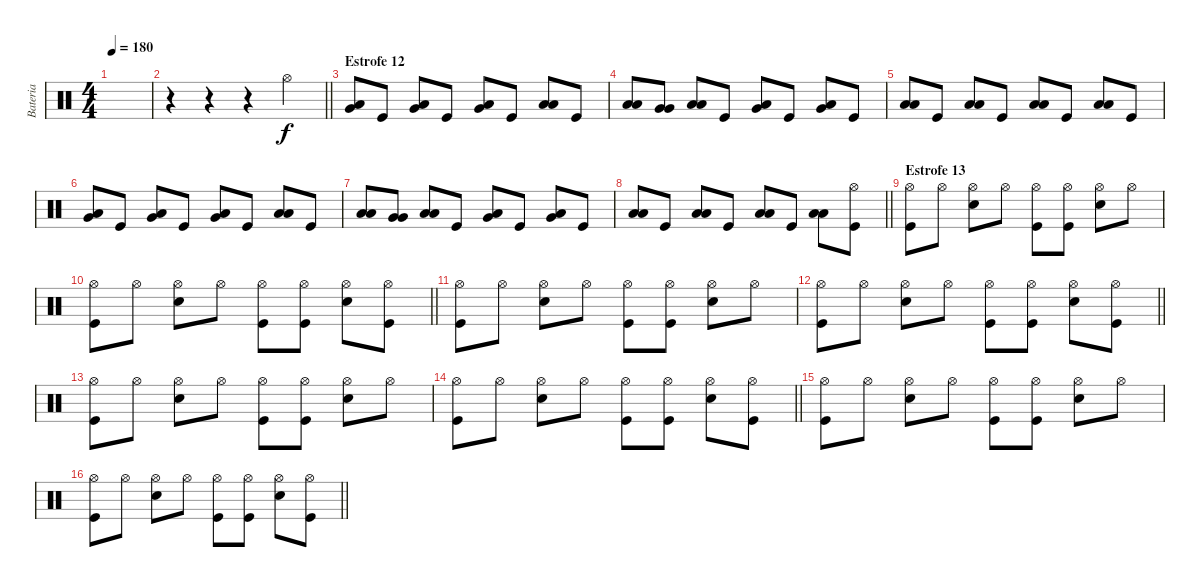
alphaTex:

\track ("Bateria" "Bateria") {instrument percussion}
\staff {score}
\articulation defaults
\ts (4 4)
\tempo 180
\clef neutral
\ks c
|
\barLineRight lightlight
r.4 r.4 r.4 "Hi-Hat (open)".4 |
\section ("" "Estrofe 12")
("Low Tom (hit)" "Very Low Tom (hit)").8 "Kick (hit)".8 ("Very Low Tom (hit)" "Low Floor Tom (hit)").8 "Kick (hit)".8 ("Low Tom (hit)" "Very Low Tom (hit)").8 "Kick (hit)".8 ("Low Floor Tom (hit)" "Low Floor Tom (hit)").8 "Kick (hit)".8 |
("Low Tom (hit)" "Low Tom (hit)").8 ("Very Low Tom (hit)" "Very Low Tom (hit)").8 ("Low Floor Tom (hit)" "Low Floor Tom (hit)").8 "Kick (hit)".8 ("Low Floor Tom (hit)" "Very Low Tom (hit)").8 "Kick (hit)".8 ("Low Tom (hit)" "Very Low Tom (hit)").8 "Kick (hit)".8 |
("Low Floor Tom (hit)" "Low Floor Tom (hit)").8 "Kick (hit)".8 ("Low Floor Tom (hit)" "Low Floor Tom (hit)").8 "Kick (hit)".8 ("Low Floor Tom (hit)" "Low Floor Tom (hit)").8 "Kick (hit)".8 ("Low Floor Tom (hit)" "Low Floor Tom (hit)").8 "Kick (hit)".8 |
("Low Tom (hit)" "Very Low Tom (hit)").8 "Kick (hit)".8 ("Very Low Tom (hit)" "Low Floor Tom (hit)").8 "Kick (hit)".8 ("Low Tom (hit)" "Very Low Tom (hit)").8 "Kick (hit)".8 ("Low Floor Tom (hit)" "Low Floor Tom (hit)").8 "Kick (hit)".8 |
("Low Tom (hit)" "Low Tom (hit)").8 ("Very Low Tom (hit)" "Very Low Tom (hit)").8 ("Low Floor Tom (hit)" "Low Floor Tom (hit)").8 "Kick (hit)".8 ("Low Floor Tom (hit)" "Very Low Tom (hit)").8 "Kick (hit)".8 ("Low Tom (hit)" "Very Low Tom (hit)").8 "Kick (hit)".8 |
\barLineRight lightlight
("Low Floor Tom (hit)" "Low Floor Tom (hit)").8 "Kick (hit)".8 ("Low Floor Tom (hit)" "Low Floor Tom (hit)").8 "Kick (hit)".8 ("Low Floor Tom (hit)" "Low Floor Tom (hit)").8 "Kick (hit)".8 ("Low Floor Tom (hit)" "Low Floor Tom (hit)").8 ("Hi-Hat (open)" "Kick (hit)").8 |
\section ("" "Estrofe 13")
("Hi-Hat (open)" "Kick (hit)").8 "Hi-Hat (open)".8 ("Hi-Hat (open)" "Snare (hit) 2").8 "Hi-Hat (open)".8 ("Hi-Hat (open)" "Kick (hit)").8 ("Hi-Hat (open)" "Kick (hit)").8 ("Hi-Hat (open)" "Snare (hit) 2").8 "Hi-Hat (open)".8 |
\barLineRight lightlight
("Hi-Hat (open)" "Kick (hit)").8 "Hi-Hat (open)".8 ("Hi-Hat (open)" "Snare (hit) 2").8 "Hi-Hat (open)".8 ("Hi-Hat (open)" "Kick (hit)").8 ("Hi-Hat (open)" "Kick (hit)").8 ("Hi-Hat (open)" "Snare (hit) 2").8 ("Hi-Hat (open)" "Kick (hit)").8 |
("Hi-Hat (open)" "Kick (hit)").8 "Hi-Hat (open)".8 ("Hi-Hat (open)" "Snare (hit) 2").8 "Hi-Hat (open)".8 ("Hi-Hat (open)" "Kick (hit)").8 ("Hi-Hat (open)" "Kick (hit)").8 ("Hi-Hat (open)" "Snare (hit) 2").8 "Hi-Hat (open)".8 |
\barLineRight lightlight
("Hi-Hat (open)" "Kick (hit)").8 "Hi-Hat (open)".8 ("Hi-Hat (open)" "Snare (hit) 2").8 "Hi-Hat (open)".8 ("Hi-Hat (open)" "Kick (hit)").8 ("Hi-Hat (open)" "Kick (hit)").8 ("Hi-Hat (open)" "Snare (hit) 2").8 ("Hi-Hat (open)" "Kick (hit)").8 |
("Hi-Hat (open)" "Kick (hit)").8 "Hi-Hat (open)".8 ("Hi-Hat (open)" "Snare (hit) 2").8 "Hi-Hat (open)".8 ("Hi-Hat (open)" "Kick (hit)").8 ("Hi-Hat (open)" "Kick (hit)").8 ("Hi-Hat (open)" "Snare (hit) 2").8 "Hi-Hat (open)".8 |
\barLineRight lightlight
("Hi-Hat (open)" "Kick (hit)").8 "Hi-Hat (open)".8 ("Hi-Hat (open)" "Snare (hit) 2").8 "Hi-Hat (open)".8 ("Hi-Hat (open)" "Kick (hit)").8 ("Hi-Hat (open)" "Kick (hit)").8 ("Hi-Hat (open)" "Snare (hit) 2").8 ("Hi-Hat (open)" "Kick (hit)").8 |
("Hi-Hat (open)" "Kick (hit)").8 "Hi-Hat (open)".8 ("Hi-Hat (open)" "Snare (hit) 2").8 "Hi-Hat (open)".8 ("Hi-Hat (open)" "Kick (hit)").8 ("Hi-Hat (open)" "Kick (hit)").8 ("Hi-Hat (open)" "Snare (hit) 2").8 "Hi-Hat (open)".8 |
\barLineRight lightlight
("Hi-Hat (open)" "Kick (hit)").8 "Hi-Hat (open)".8 ("Hi-Hat (open)" "Snare (hit) 2").8 "Hi-Hat (open)".8 ("Hi-Hat (open)" "Kick (hit)").8 ("Hi-Hat (open)" "Kick (hit)").8 ("Hi-Hat (open)" "Snare (hit) 2").8 ("Hi-Hat (open)" "Kick (hit)").8
